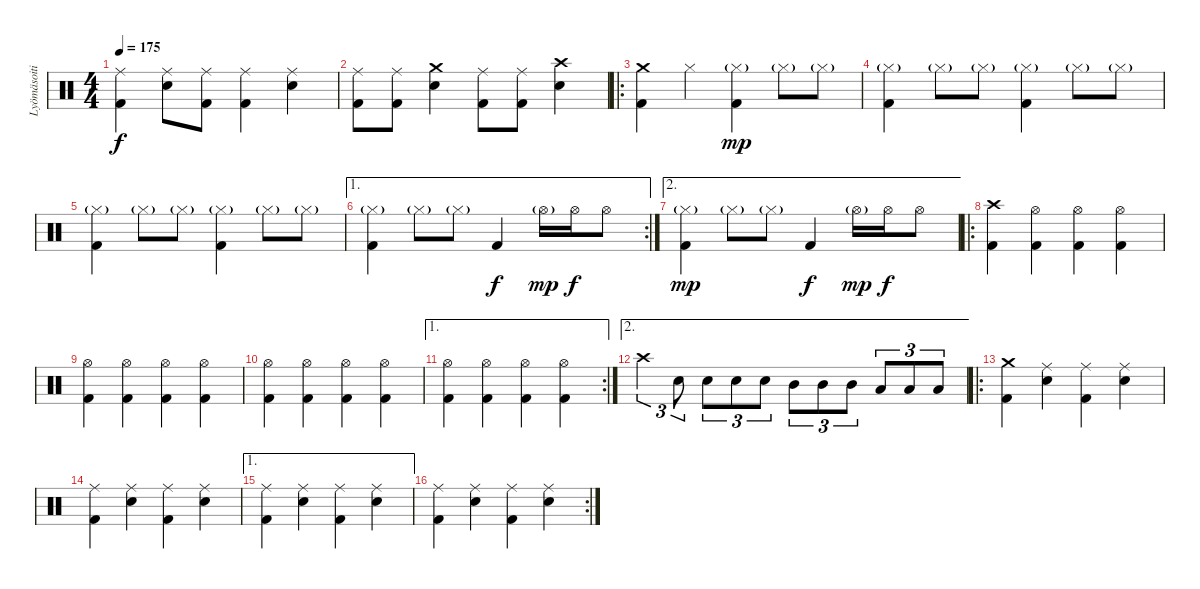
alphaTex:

\track ("Lyömäsoitin" "Lyömäsoiti") {instrument percussion}
\staff {score}
\articulation defaults
\ts (4 4)
\tempo 175
\clef neutral
\ks c
("Ride (middle)" "Kick (hit) 2").4{dy f} ("Ride (middle)" "Snare (hit) 2").8 ("Ride (middle)" "Kick (hit) 2").8 ("Ride (middle)" "Kick (hit) 2").4 ("Ride (middle)" "Snare (hit) 2").4 |
("Ride (middle)" "Kick (hit) 2").8 ("Ride (middle)" "Kick (hit) 2").8 ("Crash medium (hit)" "Snare (hit) 2").4 ("Ride (middle)" "Kick (hit) 2").8 ("Ride (middle)" "Kick (hit) 2").8 ("Crash high (hit)" "Snare (hit) 2").4 |
\ro
("Crash medium (hit)" "Kick (hit) 2").4 "Hi-Hat (closed)".4 ("Hi-Hat (closed)"{g} "Kick (hit) 2").4{dy mp} "Hi-Hat (closed)"{g}.8 "Hi-Hat (closed)"{g}.8 |
("Hi-Hat (closed)"{g} "Kick (hit) 2").4 "Hi-Hat (closed)"{g}.8 "Hi-Hat (closed)"{g}.8 ("Hi-Hat (closed)"{g} "Kick (hit) 2").4 "Hi-Hat (closed)"{g}.8 "Hi-Hat (closed)"{g}.8 |
("Hi-Hat (closed)"{g} "Kick (hit) 2").4 "Hi-Hat (closed)"{g}.8 "Hi-Hat (closed)"{g}.8 ("Hi-Hat (closed)"{g} "Kick (hit) 2").4 "Hi-Hat (closed)"{g}.8 "Hi-Hat (closed)"{g}.8 |
\ae 1
\rc 2
("Hi-Hat (closed)"{g} "Kick (hit) 2").4 "Hi-Hat (closed)"{g}.8 "Hi-Hat (closed)"{g}.8 "Kick (hit) 2".4{dy f} "Hi-Hat (open)"{g}.16{dy mp} "Hi-Hat (open)".16{dy f} "Hi-Hat (open)".8 |
\ae 2
("Hi-Hat (closed)"{g} "Kick (hit) 2").4{dy mp} "Hi-Hat (closed)"{g}.8 "Hi-Hat (closed)"{g}.8 "Kick (hit) 2".4{dy f} "Hi-Hat (open)"{g}.16{dy mp} "Hi-Hat (open)".16{dy f} "Hi-Hat (open)".8 |
\ro
("Crash high (hit)" "Kick (hit) 2").4 ("Hi-Hat (open)" "Kick (hit) 2").4 ("Hi-Hat (open)" "Kick (hit) 2").4 ("Hi-Hat (open)" "Kick (hit) 2").4 |
("Hi-Hat (open)" "Kick (hit) 2").4 ("Hi-Hat (open)" "Kick (hit) 2").4 ("Hi-Hat (open)" "Kick (hit) 2").4 ("Hi-Hat (open)" "Kick (hit) 2").4 |
("Hi-Hat (open)" "Kick (hit) 2").4 ("Hi-Hat (open)" "Kick (hit) 2").4 ("Hi-Hat (open)" "Kick (hit) 2").4 ("Hi-Hat (open)" "Kick (hit) 2").4 |
\ae 1
\rc 2
("Hi-Hat (open)" "Kick (hit) 2").4 ("Hi-Hat (open)" "Kick (hit) 2").4 ("Hi-Hat (open)" "Kick (hit) 2").4 ("Hi-Hat (open)" "Kick (hit) 2").4 |
\ae 2 "Crash high (hit)".4{tu (3 2)} "Snare (hit) 2".8{tu (3 2)} "Snare (hit) 2".8{tu (3 2)} "Snare (hit) 2".8{tu (3 2)} "Snare (hit) 2".8{tu (3 2)} "Mid Tom (hit)".8{tu (3 2)} "Mid Tom (hit)".8{tu (3 2)} "Mid Tom (hit)".8{tu (3 2)} "Low Tom (hit)".8{tu (3 2)} "Low Tom (hit)".8{tu (3 2)} "Low Tom (hit)".8{tu (3 2)}
|
\ro
("Crash medium (hit)" "Kick (hit) 2").4 ("Ride (middle)" "Snare (hit) 2").4 ("Ride (middle)" "Kick (hit) 2").4 ("Ride (middle)" "Snare (hit) 2").4 |
("Ride (middle)" "Kick (hit) 2").4 ("Ride (middle)" "Snare (hit) 2").4 ("Ride (middle)" "Kick (hit) 2").4 ("Ride (middle)" "Snare (hit) 2").4 |
\ae 1
("Ride (middle)" "Kick (hit) 2").4 ("Ride (middle)" "Snare (hit) 2").4 ("Ride (middle)" "Kick (hit) 2").4 ("Ride (middle)" "Snare (hit) 2").4 |
\rc 2
("Ride (middle)" "Kick (hit) 2").4 ("Ride (middle)" "Snare (hit) 2").4 ("Ride (middle)" "Kick (hit) 2").4 ("Ride (middle)" "Snare (hit) 2").4
